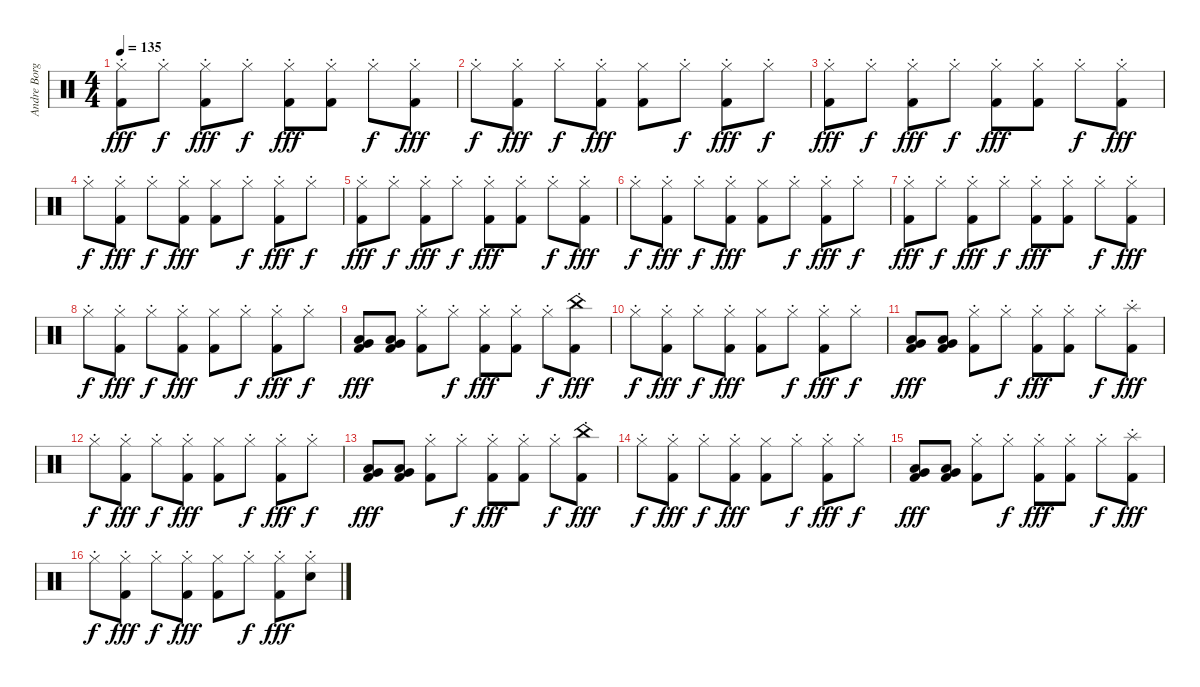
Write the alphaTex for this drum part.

\track ("Andre Borgman" "Andre Borg") {instrument percussion}
\staff {score}
\articulation defaults
\ts (4 4)
\tempo 135
\clef neutral
\ks c
("Hi-Hat (closed)"{st} "Kick (hit) 2").8{dy fff} "Hi-Hat (closed)"{st}.8{dy f} ("Hi-Hat (closed)"{st} "Kick (hit) 2").8{dy fff} "Hi-Hat (closed)"{st}.8{dy f} ("Hi-Hat (closed)"{st} "Kick (hit) 2").8{dy fff} ("Hi-Hat (closed)"{st} "Kick (hit) 2").8 "Hi-Hat (closed)"{st}.8{dy f} ("Hi-Hat (closed)"{st} "Kick (hit) 2").8{dy fff} |
"Hi-Hat (closed)"{st}.8{dy f} ("Hi-Hat (closed)"{st} "Kick (hit) 2").8{dy fff} "Hi-Hat (closed)"{st}.8{dy f} ("Hi-Hat (closed)"{st} "Kick (hit) 2").8{dy fff} ("Hi-Hat (closed)" "Kick (hit) 2").8 "Hi-Hat (closed)"{st}.8{dy f} ("Hi-Hat (closed)"{st} "Kick (hit) 2").8{dy fff} "Hi-Hat (closed)"{st}.8{dy f} |
("Hi-Hat (closed)"{st} "Kick (hit) 2").8{dy fff} "Hi-Hat (closed)"{st}.8{dy f} ("Hi-Hat (closed)"{st} "Kick (hit) 2").8{dy fff} "Hi-Hat (closed)"{st}.8{dy f} ("Hi-Hat (closed)"{st} "Kick (hit) 2").8{dy fff} ("Hi-Hat (closed)"{st} "Kick (hit) 2").8 "Hi-Hat (closed)"{st}.8{dy f} ("Hi-Hat (closed)"{st} "Kick (hit) 2").8{dy fff} |
"Hi-Hat (closed)"{st}.8{dy f} ("Hi-Hat (closed)"{st} "Kick (hit) 2").8{dy fff} "Hi-Hat (closed)"{st}.8{dy f} ("Hi-Hat (closed)"{st} "Kick (hit) 2").8{dy fff} ("Hi-Hat (closed)" "Kick (hit) 2").8 "Hi-Hat (closed)"{st}.8{dy f} ("Hi-Hat (closed)"{st} "Kick (hit) 2").8{dy fff} "Hi-Hat (closed)"{st}.8{dy f} |
("Hi-Hat (closed)"{st} "Kick (hit) 2").8{dy fff} "Hi-Hat (closed)"{st}.8{dy f} ("Hi-Hat (closed)"{st} "Kick (hit) 2").8{dy fff} "Hi-Hat (closed)"{st}.8{dy f} ("Hi-Hat (closed)"{st} "Kick (hit) 2").8{dy fff} ("Hi-Hat (closed)"{st} "Kick (hit) 2").8 "Hi-Hat (closed)"{st}.8{dy f} ("Hi-Hat (closed)"{st} "Kick (hit) 2").8{dy fff} |
"Hi-Hat (closed)"{st}.8{dy f} ("Hi-Hat (closed)"{st} "Kick (hit) 2").8{dy fff} "Hi-Hat (closed)"{st}.8{dy f} ("Hi-Hat (closed)"{st} "Kick (hit) 2").8{dy fff} ("Hi-Hat (closed)" "Kick (hit) 2").8 "Hi-Hat (closed)"{st}.8{dy f} ("Hi-Hat (closed)"{st} "Kick (hit) 2").8{dy fff} "Hi-Hat (closed)"{st}.8{dy f} |
("Hi-Hat (closed)"{st} "Kick (hit) 2").8{dy fff} "Hi-Hat (closed)"{st}.8{dy f} ("Hi-Hat (closed)"{st} "Kick (hit) 2").8{dy fff} "Hi-Hat (closed)"{st}.8{dy f} ("Hi-Hat (closed)"{st} "Kick (hit) 2").8{dy fff} ("Hi-Hat (closed)"{st} "Kick (hit) 2").8 "Hi-Hat (closed)"{st}.8{dy f} ("Hi-Hat (closed)"{st} "Kick (hit) 2").8{dy fff} |
"Hi-Hat (closed)"{st}.8{dy f} ("Hi-Hat (closed)"{st} "Kick (hit) 2").8{dy fff} "Hi-Hat (closed)"{st}.8{dy f} ("Hi-Hat (closed)"{st} "Kick (hit) 2").8{dy fff} ("Hi-Hat (closed)" "Kick (hit) 2").8 "Hi-Hat (closed)"{st}.8{dy f} ("Hi-Hat (closed)"{st} "Kick (hit) 2").8{dy fff} "Hi-Hat (closed)"{st}.8{dy f} |
("Very Low Tom (hit)" "Low Tom (hit)" "Kick (hit) 2").8{dy fff} ("Very Low Tom (hit)" "Low Tom (hit)" "Kick (hit) 2").8 ("Hi-Hat (closed)"{st} "Kick (hit) 2").8 "Hi-Hat (closed)"{st}.8{dy f} ("Hi-Hat (closed)"{st} "Kick (hit) 2").8{dy fff} ("Hi-Hat (closed)"{st} "Kick (hit) 2").8 "Hi-Hat (closed)"{st}.8{dy f} ("China (hit)"{st} "Kick (hit) 2").8{dy fff} |
"Hi-Hat (closed)"{st}.8{dy f} ("Hi-Hat (closed)"{st} "Kick (hit) 2").8{dy fff} "Hi-Hat (closed)"{st}.8{dy f} ("Hi-Hat (closed)"{st} "Kick (hit) 2").8{dy fff} ("Hi-Hat (closed)" "Kick (hit) 2").8 "Hi-Hat (closed)"{st}.8{dy f} ("Hi-Hat (closed)"{st} "Kick (hit) 2").8{dy fff} "Hi-Hat (closed)"{st}.8{dy f} |
("Very Low Tom (hit)" "Low Tom (hit)" "Kick (hit) 2").8{dy fff} ("Very Low Tom (hit)" "Low Tom (hit)" "Kick (hit) 2").8 ("Hi-Hat (closed)"{st} "Kick (hit) 2").8 "Hi-Hat (closed)"{st}.8{dy f} ("Hi-Hat (closed)"{st} "Kick (hit) 2").8{dy fff} ("Hi-Hat (closed)"{st} "Kick (hit) 2").8 "Hi-Hat (closed)"{st}.8{dy f} ("Splash (hit)"{st} "Kick (hit) 2").8{dy fff} |
"Hi-Hat (closed)"{st}.8{dy f} ("Hi-Hat (closed)"{st} "Kick (hit) 2").8{dy fff} "Hi-Hat (closed)"{st}.8{dy f} ("Hi-Hat (closed)"{st} "Kick (hit) 2").8{dy fff} ("Hi-Hat (closed)" "Kick (hit) 2").8 "Hi-Hat (closed)"{st}.8{dy f} ("Hi-Hat (closed)"{st} "Kick (hit) 2").8{dy fff} "Hi-Hat (closed)"{st}.8{dy f} |
("Very Low Tom (hit)" "Low Tom (hit)" "Kick (hit) 2").8{dy fff} ("Very Low Tom (hit)" "Low Tom (hit)" "Kick (hit) 2").8 ("Hi-Hat (closed)"{st} "Kick (hit) 2").8 "Hi-Hat (closed)"{st}.8{dy f} ("Hi-Hat (closed)"{st} "Kick (hit) 2").8{dy fff} ("Hi-Hat (closed)"{st} "Kick (hit) 2").8 "Hi-Hat (closed)"{st}.8{dy f} ("China (hit)"{st} "Kick (hit) 2").8{dy fff} |
"Hi-Hat (closed)"{st}.8{dy f} ("Hi-Hat (closed)"{st} "Kick (hit) 2").8{dy fff} "Hi-Hat (closed)"{st}.8{dy f} ("Hi-Hat (closed)"{st} "Kick (hit) 2").8{dy fff} ("Hi-Hat (closed)" "Kick (hit) 2").8 "Hi-Hat (closed)"{st}.8{dy f} ("Hi-Hat (closed)"{st} "Kick (hit) 2").8{dy fff} "Hi-Hat (closed)"{st}.8{dy f} |
("Very Low Tom (hit)" "Low Tom (hit)" "Kick (hit) 2").8{dy fff} ("Very Low Tom (hit)" "Low Tom (hit)" "Kick (hit) 2").8 ("Hi-Hat (closed)"{st} "Kick (hit) 2").8 "Hi-Hat (closed)"{st}.8{dy f} ("Hi-Hat (closed)"{st} "Kick (hit) 2").8{dy fff} ("Hi-Hat (closed)"{st} "Kick (hit) 2").8 "Hi-Hat (closed)"{st}.8{dy f} ("Splash (hit)"{st} "Kick (hit) 2").8{dy fff} |
"Hi-Hat (closed)"{st}.8{dy f} ("Hi-Hat (closed)"{st} "Kick (hit) 2").8{dy fff} "Hi-Hat (closed)"{st}.8{dy f} ("Hi-Hat (closed)"{st} "Kick (hit) 2").8{dy fff} ("Hi-Hat (closed)" "Kick (hit) 2").8 "Hi-Hat (closed)"{st}.8{dy f} ("Hi-Hat (closed)"{st} "Kick (hit) 2").8{dy fff} ("Hi-Hat (closed)"{st} "Snare (hit) 2").8
